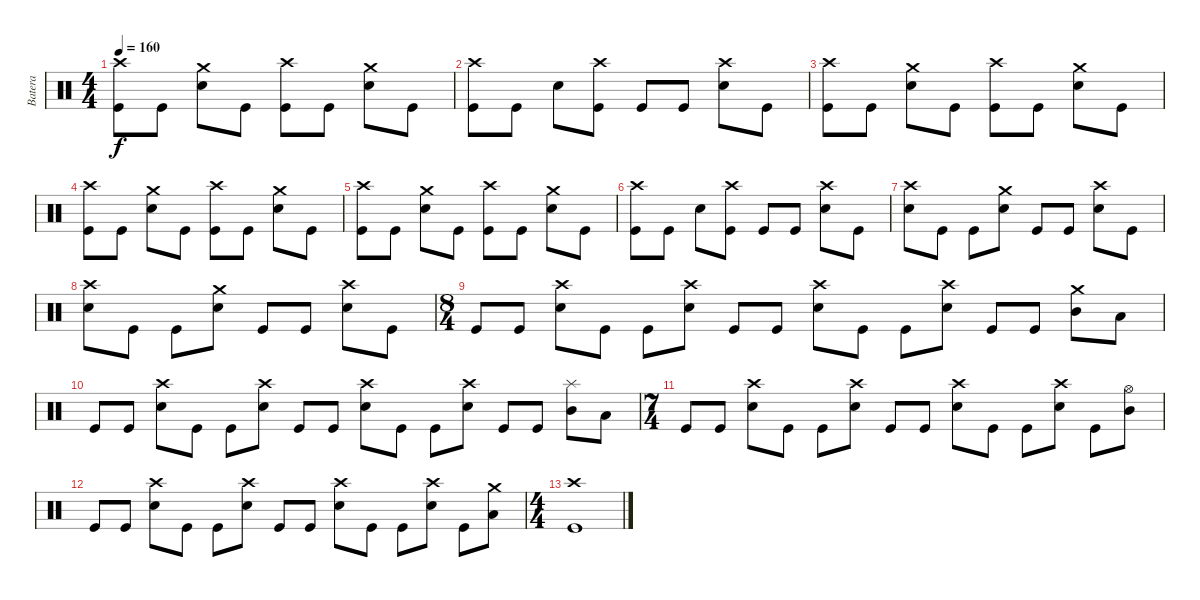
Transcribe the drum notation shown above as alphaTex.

\track ("Batera" "Batera") {instrument percussion}
\staff {score}
\articulation defaults
\ts (4 4)
\tempo 160
\clef neutral
\ks c
("Kick (hit)" "Crash high (hit)").8{dy f} "Kick (hit)".8 ("Snare (hit) 2" "Crash medium (hit)").8 "Kick (hit)".8 ("Kick (hit)" "Crash high (hit)").8 "Kick (hit)".8 ("Snare (hit) 2" "Crash medium (hit)").8 "Kick (hit)".8 |
("Kick (hit)" "Crash high (hit)").8 "Kick (hit)".8 "Snare (hit) 2".8 ("Kick (hit)" "Crash high (hit)").8 "Kick (hit)".8 "Kick (hit)".8 ("Snare (hit) 2" "Crash high (hit)").8 "Kick (hit)".8 |
("Kick (hit)" "Crash high (hit)").8 "Kick (hit)".8 ("Snare (hit) 2" "Crash medium (hit)").8 "Kick (hit)".8 ("Kick (hit)" "Crash high (hit)").8 "Kick (hit)".8 ("Snare (hit) 2" "Crash medium (hit)").8 "Kick (hit)".8 |
("Kick (hit)" "Crash high (hit)").8 "Kick (hit)".8 ("Snare (hit) 2" "Crash medium (hit)").8 "Kick (hit)".8 ("Kick (hit)" "Crash high (hit)").8 "Kick (hit)".8 ("Snare (hit) 2" "Crash medium (hit)").8 "Kick (hit)".8 |
("Kick (hit)" "Crash high (hit)").8 "Kick (hit)".8 ("Snare (hit) 2" "Crash medium (hit)").8 "Kick (hit)".8 ("Kick (hit)" "Crash high (hit)").8 "Kick (hit)".8 ("Snare (hit) 2" "Crash medium (hit)").8 "Kick (hit)".8 |
("Kick (hit)" "Crash high (hit)").8 "Kick (hit)".8 "Snare (hit) 2".8 ("Kick (hit)" "Crash high (hit)").8 "Kick (hit)".8 "Kick (hit)".8 ("Snare (hit) 2" "Crash high (hit)").8 "Kick (hit)".8 |
("Snare (hit) 2" "Crash high (hit)").8 "Kick (hit)".8 "Kick (hit)".8 ("Snare (hit) 2" "Crash medium (hit)").8 "Kick (hit)".8 "Kick (hit)".8 ("Snare (hit) 2" "Crash high (hit)").8 "Kick (hit)".8 |
("Snare (hit) 2" "Crash high (hit)").8 "Kick (hit)".8 "Kick (hit)".8 ("Snare (hit) 2" "Crash medium (hit)").8 "Kick (hit)".8 "Kick (hit)".8 ("Snare (hit) 2" "Crash high (hit)").8 "Kick (hit)".8 |
\ts (8 4)
"Kick (hit)".8 "Kick (hit)".8 ("Snare (hit) 2" "Crash high (hit)").8 "Kick (hit)".8 "Kick (hit)".8 ("Snare (hit) 2" "Crash high (hit)").8 "Kick (hit)".8 "Kick (hit)".8 ("Snare (hit) 2" "Crash high (hit)").8 "Kick (hit)".8 "Kick (hit)".8 ("Snare (hit) 2" "Crash high (hit)").8 "Kick (hit)".8 "Kick (hit)".8 ("Mid Tom (hit)" "Crash medium (hit)").8 "Low Tom (hit)".8 |
"Kick (hit)".8 "Kick (hit)".8 ("Snare (hit) 2" "Crash high (hit)").8 "Kick (hit)".8 "Kick (hit)".8 ("Snare (hit) 2" "Crash high (hit)").8 "Kick (hit)".8 "Kick (hit)".8 ("Snare (hit) 2" "Crash high (hit)").8 "Kick (hit)".8 "Kick (hit)".8 ("Snare (hit) 2" "Crash high (hit)").8 "Kick (hit)".8 "Kick (hit)".8 ("Mid Tom (hit)" "Splash (hit)").8 "Low Tom (hit)".8 |
\ts (7 4)
"Kick (hit)".8 "Kick (hit)".8 ("Snare (hit) 2" "Crash high (hit)").8 "Kick (hit)".8 "Kick (hit)".8 ("Snare (hit) 2" "Crash high (hit)").8 "Kick (hit)".8 "Kick (hit)".8 ("Snare (hit) 2" "Crash high (hit)").8 "Kick (hit)".8 "Kick (hit)".8 ("Snare (hit) 2" "Crash high (hit)").8 "Kick (hit)".8 ("Mid Tom (hit)" "Hi-Hat (open)").8 |
"Kick (hit)".8 "Kick (hit)".8 ("Snare (hit) 2" "Crash high (hit)").8 "Kick (hit)".8 "Kick (hit)".8 ("Snare (hit) 2" "Crash high (hit)").8 "Kick (hit)".8 "Kick (hit)".8 ("Snare (hit) 2" "Crash high (hit)").8 "Kick (hit)".8 "Kick (hit)".8 ("Snare (hit) 2" "Crash high (hit)").8 "Kick (hit)".8 ("Low Tom (hit)" "Crash medium (hit)").8 |
\ts (4 4)
("Crash high (hit)" "Kick (hit)").1
